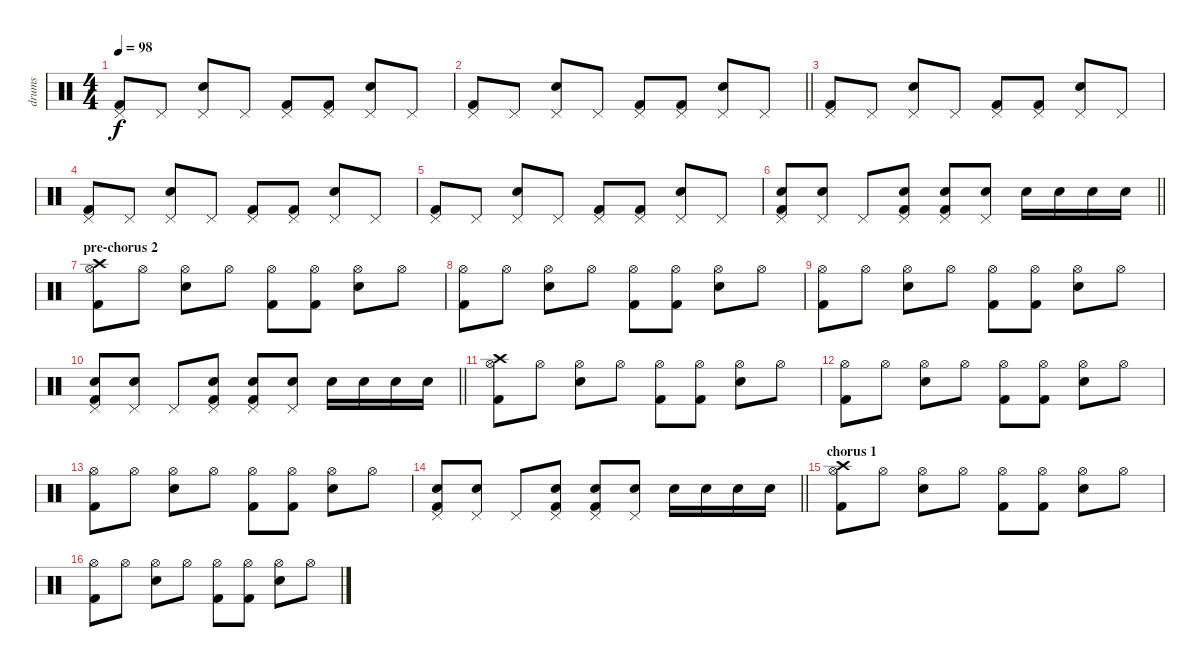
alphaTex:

\track ("drums" "drums") {instrument percussion}
\staff {score}
\articulation defaults
\ts (4 4)
\tempo 98
\clef neutral
\ks c
("Kick (hit) 2" "Pedal Hi-Hat (hit)").8{dy f} "Pedal Hi-Hat (hit)".8 ("Electric Snare (hit)" "Pedal Hi-Hat (hit)").8 "Pedal Hi-Hat (hit)".8 ("Kick (hit) 2" "Pedal Hi-Hat (hit)").8 ("Kick (hit) 2" "Pedal Hi-Hat (hit)").8 ("Electric Snare (hit)" "Pedal Hi-Hat (hit)").8 "Pedal Hi-Hat (hit)".8 |
\barLineRight lightlight
("Kick (hit) 2" "Pedal Hi-Hat (hit)").8 "Pedal Hi-Hat (hit)".8 ("Electric Snare (hit)" "Pedal Hi-Hat (hit)").8 "Pedal Hi-Hat (hit)".8 ("Kick (hit) 2" "Pedal Hi-Hat (hit)").8 ("Kick (hit) 2" "Pedal Hi-Hat (hit)").8 ("Electric Snare (hit)" "Pedal Hi-Hat (hit)").8 "Pedal Hi-Hat (hit)".8 |
("Kick (hit) 2" "Pedal Hi-Hat (hit)").8 "Pedal Hi-Hat (hit)".8 ("Electric Snare (hit)" "Pedal Hi-Hat (hit)").8 "Pedal Hi-Hat (hit)".8 ("Kick (hit) 2" "Pedal Hi-Hat (hit)").8 ("Kick (hit) 2" "Pedal Hi-Hat (hit)").8 ("Electric Snare (hit)" "Pedal Hi-Hat (hit)").8 "Pedal Hi-Hat (hit)".8 |
("Kick (hit) 2" "Pedal Hi-Hat (hit)").8 "Pedal Hi-Hat (hit)".8 ("Electric Snare (hit)" "Pedal Hi-Hat (hit)").8 "Pedal Hi-Hat (hit)".8 ("Kick (hit) 2" "Pedal Hi-Hat (hit)").8 ("Kick (hit) 2" "Pedal Hi-Hat (hit)").8 ("Electric Snare (hit)" "Pedal Hi-Hat (hit)").8 "Pedal Hi-Hat (hit)".8 |
("Kick (hit) 2" "Pedal Hi-Hat (hit)").8 "Pedal Hi-Hat (hit)".8 ("Electric Snare (hit)" "Pedal Hi-Hat (hit)").8 "Pedal Hi-Hat (hit)".8 ("Kick (hit) 2" "Pedal Hi-Hat (hit)").8 ("Kick (hit) 2" "Pedal Hi-Hat (hit)").8 ("Electric Snare (hit)" "Pedal Hi-Hat (hit)").8 "Pedal Hi-Hat (hit)".8 |
\barLineRight lightlight
("Kick (hit) 2" "Electric Snare (hit)" "Pedal Hi-Hat (hit)").8 ("Electric Snare (hit)" "Pedal Hi-Hat (hit)").8 "Pedal Hi-Hat (hit)".8 ("Kick (hit) 2" "Electric Snare (hit)" "Pedal Hi-Hat (hit)").8 ("Kick (hit) 2" "Electric Snare (hit)" "Pedal Hi-Hat (hit)").8 ("Electric Snare (hit)" "Pedal Hi-Hat (hit)").8 "Electric Snare (hit)".16 "Electric Snare (hit)".16 "Electric Snare (hit)".16 "Electric Snare (hit)".16 |
\section ("" "pre-chorus 2")
("Kick (hit) 2" "Hi-Hat (open)" "Crash high (hit)").8 "Hi-Hat (open)".8 ("Electric Snare (hit)" "Hi-Hat (open)").8 "Hi-Hat (open)".8 ("Kick (hit) 2" "Hi-Hat (open)").8 ("Kick (hit) 2" "Hi-Hat (open)").8 ("Electric Snare (hit)" "Hi-Hat (open)").8 "Hi-Hat (open)".8 |
("Kick (hit) 2" "Hi-Hat (open)").8 "Hi-Hat (open)".8 ("Electric Snare (hit)" "Hi-Hat (open)").8 "Hi-Hat (open)".8 ("Kick (hit) 2" "Hi-Hat (open)").8 ("Kick (hit) 2" "Hi-Hat (open)").8 ("Electric Snare (hit)" "Hi-Hat (open)").8 "Hi-Hat (open)".8 |
("Kick (hit) 2" "Hi-Hat (open)").8 "Hi-Hat (open)".8 ("Electric Snare (hit)" "Hi-Hat (open)").8 "Hi-Hat (open)".8 ("Kick (hit) 2" "Hi-Hat (open)").8 ("Kick (hit) 2" "Hi-Hat (open)").8 ("Electric Snare (hit)" "Hi-Hat (open)").8 "Hi-Hat (open)".8 |
\barLineRight lightlight
("Kick (hit) 2" "Electric Snare (hit)" "Pedal Hi-Hat (hit)").8 ("Electric Snare (hit)" "Pedal Hi-Hat (hit)").8 "Pedal Hi-Hat (hit)".8 ("Kick (hit) 2" "Electric Snare (hit)" "Pedal Hi-Hat (hit)").8 ("Kick (hit) 2" "Electric Snare (hit)" "Pedal Hi-Hat (hit)").8 ("Electric Snare (hit)" "Pedal Hi-Hat (hit)").8 "Electric Snare (hit)".16 "Electric Snare (hit)".16 "Electric Snare (hit)".16 "Electric Snare (hit)".16 |
("Kick (hit) 2" "Hi-Hat (open)" "Crash high (hit)").8 "Hi-Hat (open)".8 ("Electric Snare (hit)" "Hi-Hat (open)").8 "Hi-Hat (open)".8 ("Kick (hit) 2" "Hi-Hat (open)").8 ("Kick (hit) 2" "Hi-Hat (open)").8 ("Electric Snare (hit)" "Hi-Hat (open)").8 "Hi-Hat (open)".8 |
("Kick (hit) 2" "Hi-Hat (open)").8 "Hi-Hat (open)".8 ("Electric Snare (hit)" "Hi-Hat (open)").8 "Hi-Hat (open)".8 ("Kick (hit) 2" "Hi-Hat (open)").8 ("Kick (hit) 2" "Hi-Hat (open)").8 ("Electric Snare (hit)" "Hi-Hat (open)").8 "Hi-Hat (open)".8 |
("Kick (hit) 2" "Hi-Hat (open)").8 "Hi-Hat (open)".8 ("Electric Snare (hit)" "Hi-Hat (open)").8 "Hi-Hat (open)".8 ("Kick (hit) 2" "Hi-Hat (open)").8 ("Kick (hit) 2" "Hi-Hat (open)").8 ("Electric Snare (hit)" "Hi-Hat (open)").8 "Hi-Hat (open)".8 |
\barLineRight lightlight
("Kick (hit) 2" "Electric Snare (hit)" "Pedal Hi-Hat (hit)").8 ("Electric Snare (hit)" "Pedal Hi-Hat (hit)").8 "Pedal Hi-Hat (hit)".8 ("Kick (hit) 2" "Electric Snare (hit)" "Pedal Hi-Hat (hit)").8 ("Kick (hit) 2" "Electric Snare (hit)" "Pedal Hi-Hat (hit)").8 ("Electric Snare (hit)" "Pedal Hi-Hat (hit)").8 "Electric Snare (hit)".16 "Electric Snare (hit)".16 "Electric Snare (hit)".16 "Electric Snare (hit)".16 |
\section ("" "chorus 1")
("Kick (hit) 2" "Hi-Hat (open)" "Crash high (hit)").8 "Hi-Hat (open)".8 ("Electric Snare (hit)" "Hi-Hat (open)").8 "Hi-Hat (open)".8 ("Kick (hit) 2" "Hi-Hat (open)").8 ("Kick (hit) 2" "Hi-Hat (open)").8 ("Electric Snare (hit)" "Hi-Hat (open)").8 "Hi-Hat (open)".8 |
("Kick (hit) 2" "Hi-Hat (open)").8 "Hi-Hat (open)".8 ("Electric Snare (hit)" "Hi-Hat (open)").8 "Hi-Hat (open)".8 ("Kick (hit) 2" "Hi-Hat (open)").8 ("Kick (hit) 2" "Hi-Hat (open)").8 ("Electric Snare (hit)" "Hi-Hat (open)").8 "Hi-Hat (open)".8
